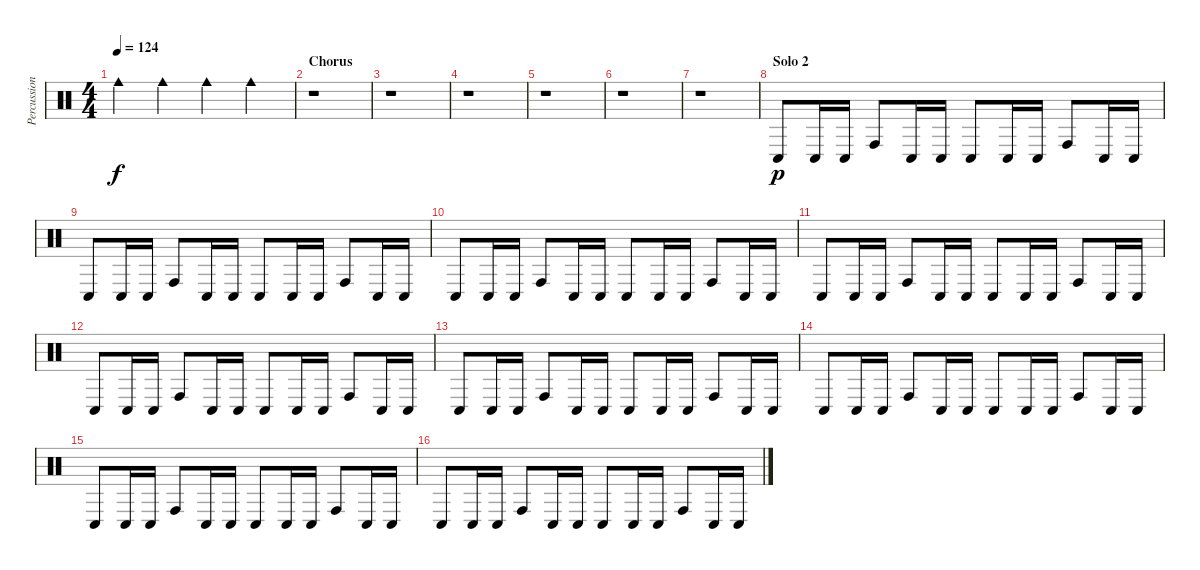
\track ("Percussion" "Percussion") {instrument percussion}
\staff {score}
\articulation defaults
\ts (4 4)
\tempo 124
\clef neutral
\ks c "Cowbell medium (hit)".4{dy f} "Cowbell medium (hit)".4 "Cowbell medium (hit)".4 "Cowbell medium (hit)".4
|
\section ("" "Chorus")
r.1 |
r.1 |
r.1 |
r.1 |
\section ("" "")
r.1 |
r.1 |
\section ("" "Solo 2")
"Conga low (hit)".8{dy p} "Conga low (hit)".16 "Conga low (hit)".16 "Conga high (hit)".8 "Conga low (hit)".16 "Conga low (hit)".16 "Conga low (hit)".8 "Conga low (hit)".16 "Conga low (hit)".16 "Conga high (hit)".8 "Conga low (hit)".16 "Conga low (hit)".16 |
"Conga low (hit)".8 "Conga low (hit)".16 "Conga low (hit)".16 "Conga high (hit)".8 "Conga low (hit)".16 "Conga low (hit)".16 "Conga low (hit)".8 "Conga low (hit)".16 "Conga low (hit)".16 "Conga high (hit)".8 "Conga low (hit)".16 "Conga low (hit)".16 |
"Conga low (hit)".8 "Conga low (hit)".16 "Conga low (hit)".16 "Conga high (hit)".8 "Conga low (hit)".16 "Conga low (hit)".16 "Conga low (hit)".8 "Conga low (hit)".16 "Conga low (hit)".16 "Conga high (hit)".8 "Conga low (hit)".16 "Conga low (hit)".16 |
"Conga low (hit)".8 "Conga low (hit)".16 "Conga low (hit)".16 "Conga high (hit)".8 "Conga low (hit)".16 "Conga low (hit)".16 "Conga low (hit)".8 "Conga low (hit)".16 "Conga low (hit)".16 "Conga high (hit)".8 "Conga low (hit)".16 "Conga low (hit)".16 |
"Conga low (hit)".8 "Conga low (hit)".16 "Conga low (hit)".16 "Conga high (hit)".8 "Conga low (hit)".16 "Conga low (hit)".16 "Conga low (hit)".8 "Conga low (hit)".16 "Conga low (hit)".16 "Conga high (hit)".8 "Conga low (hit)".16 "Conga low (hit)".16 |
"Conga low (hit)".8 "Conga low (hit)".16 "Conga low (hit)".16 "Conga high (hit)".8 "Conga low (hit)".16 "Conga low (hit)".16 "Conga low (hit)".8 "Conga low (hit)".16 "Conga low (hit)".16 "Conga high (hit)".8 "Conga low (hit)".16 "Conga low (hit)".16 |
"Conga low (hit)".8 "Conga low (hit)".16 "Conga low (hit)".16 "Conga high (hit)".8 "Conga low (hit)".16 "Conga low (hit)".16 "Conga low (hit)".8 "Conga low (hit)".16 "Conga low (hit)".16 "Conga high (hit)".8 "Conga low (hit)".16 "Conga low (hit)".16 |
"Conga low (hit)".8 "Conga low (hit)".16 "Conga low (hit)".16 "Conga high (hit)".8 "Conga low (hit)".16 "Conga low (hit)".16 "Conga low (hit)".8 "Conga low (hit)".16 "Conga low (hit)".16 "Conga high (hit)".8 "Conga low (hit)".16 "Conga low (hit)".16 |
"Conga low (hit)".8 "Conga low (hit)".16 "Conga low (hit)".16 "Conga high (hit)".8 "Conga low (hit)".16 "Conga low (hit)".16 "Conga low (hit)".8 "Conga low (hit)".16 "Conga low (hit)".16 "Conga high (hit)".8 "Conga low (hit)".16 "Conga low (hit)".16
